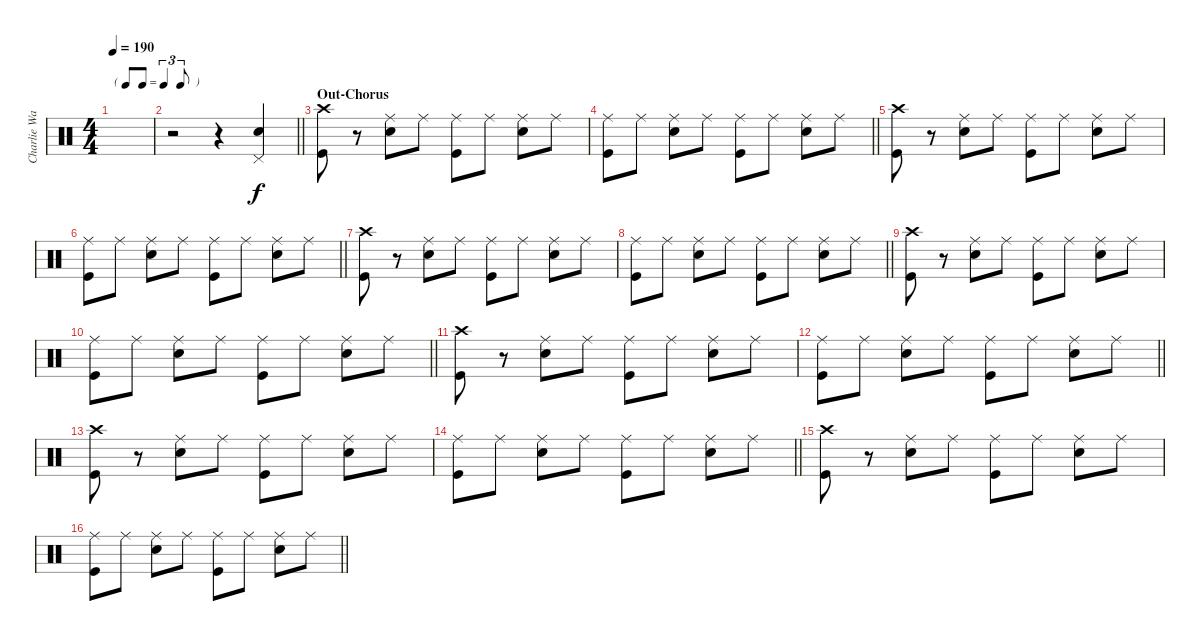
\track ("Charlie Watts" "Charlie Wa") {instrument percussion}
\staff {score}
\articulation defaults
\ts (4 4)
\tf triplet8th
\tempo 190
\clef neutral
\ks c
|
\barLineRight lightlight
r.2 r.4 ("Pedal Hi-Hat (hit)" "Snare (hit) 2").4{dy f} |
\section ("" "Out-Chorus")
("Crash high (hit)" "Kick (hit)").8 r.8 ("Ride (middle)" "Snare (hit) 2").8 "Ride (middle)".8 ("Ride (middle)" "Kick (hit)").8 "Ride (middle)".8 ("Ride (middle)" "Snare (hit) 2").8 "Ride (middle)".8 |
\barLineRight lightlight
("Ride (middle)" "Kick (hit)").8 "Ride (middle)".8 ("Ride (middle)" "Snare (hit) 2").8 "Ride (middle)".8 ("Ride (middle)" "Kick (hit)").8 "Ride (middle)".8 ("Ride (middle)" "Snare (hit) 2").8 "Ride (middle)".8 |
("Crash high (hit)" "Kick (hit)").8 r.8 ("Ride (middle)" "Snare (hit) 2").8 "Ride (middle)".8 ("Ride (middle)" "Kick (hit)").8 "Ride (middle)".8 ("Ride (middle)" "Snare (hit) 2").8 "Ride (middle)".8 |
\barLineRight lightlight
("Ride (middle)" "Kick (hit)").8 "Ride (middle)".8 ("Ride (middle)" "Snare (hit) 2").8 "Ride (middle)".8 ("Ride (middle)" "Kick (hit)").8 "Ride (middle)".8 ("Ride (middle)" "Snare (hit) 2").8 "Ride (middle)".8 |
("Crash high (hit)" "Kick (hit)").8 r.8 ("Ride (middle)" "Snare (hit) 2").8 "Ride (middle)".8 ("Ride (middle)" "Kick (hit)").8 "Ride (middle)".8 ("Ride (middle)" "Snare (hit) 2").8 "Ride (middle)".8 |
\barLineRight lightlight
("Ride (middle)" "Kick (hit)").8 "Ride (middle)".8 ("Ride (middle)" "Snare (hit) 2").8 "Ride (middle)".8 ("Ride (middle)" "Kick (hit)").8 "Ride (middle)".8 ("Ride (middle)" "Snare (hit) 2").8 "Ride (middle)".8 |
("Crash high (hit)" "Kick (hit)").8 r.8 ("Ride (middle)" "Snare (hit) 2").8 "Ride (middle)".8 ("Ride (middle)" "Kick (hit)").8 "Ride (middle)".8 ("Ride (middle)" "Snare (hit) 2").8 "Ride (middle)".8 |
\barLineRight lightlight
("Ride (middle)" "Kick (hit)").8 "Ride (middle)".8 ("Ride (middle)" "Snare (hit) 2").8 "Ride (middle)".8 ("Ride (middle)" "Kick (hit)").8 "Ride (middle)".8 ("Ride (middle)" "Snare (hit) 2").8 "Ride (middle)".8 |
("Crash high (hit)" "Kick (hit)").8 r.8 ("Ride (middle)" "Snare (hit) 2").8 "Ride (middle)".8 ("Ride (middle)" "Kick (hit)").8 "Ride (middle)".8 ("Ride (middle)" "Snare (hit) 2").8 "Ride (middle)".8 |
\barLineRight lightlight
("Ride (middle)" "Kick (hit)").8 "Ride (middle)".8 ("Ride (middle)" "Snare (hit) 2").8 "Ride (middle)".8 ("Ride (middle)" "Kick (hit)").8 "Ride (middle)".8 ("Ride (middle)" "Snare (hit) 2").8 "Ride (middle)".8 |
("Crash high (hit)" "Kick (hit)").8 r.8 ("Ride (middle)" "Snare (hit) 2").8 "Ride (middle)".8 ("Ride (middle)" "Kick (hit)").8 "Ride (middle)".8 ("Ride (middle)" "Snare (hit) 2").8 "Ride (middle)".8 |
\barLineRight lightlight
("Ride (middle)" "Kick (hit)").8 "Ride (middle)".8 ("Ride (middle)" "Snare (hit) 2").8 "Ride (middle)".8 ("Ride (middle)" "Kick (hit)").8 "Ride (middle)".8 ("Ride (middle)" "Snare (hit) 2").8 "Ride (middle)".8 |
("Crash high (hit)" "Kick (hit)").8 r.8 ("Ride (middle)" "Snare (hit) 2").8 "Ride (middle)".8 ("Ride (middle)" "Kick (hit)").8 "Ride (middle)".8 ("Ride (middle)" "Snare (hit) 2").8 "Ride (middle)".8 |
\barLineRight lightlight
("Ride (middle)" "Kick (hit)").8 "Ride (middle)".8 ("Ride (middle)" "Snare (hit) 2").8 "Ride (middle)".8 ("Ride (middle)" "Kick (hit)").8 "Ride (middle)".8 ("Ride (middle)" "Snare (hit) 2").8 "Ride (middle)".8
